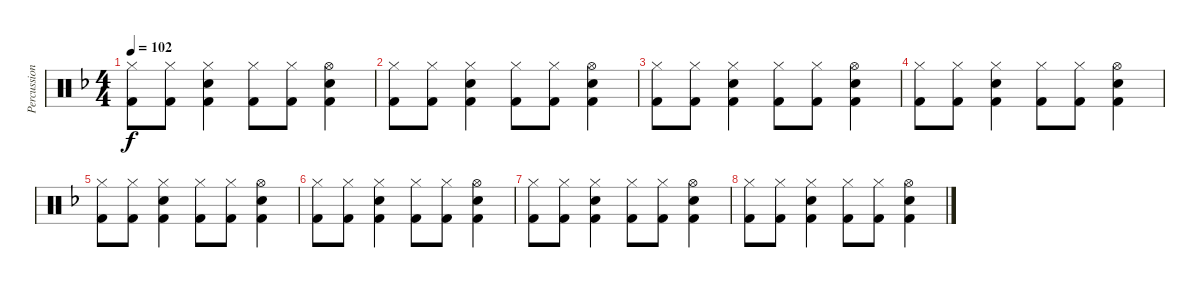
\track ("Percussion" "Percussion") {instrument percussion}
\staff {score}
\articulation defaults
\ts (4 4)
\tempo 102
\clef neutral
\ks dminor
("Hi-Hat (closed)" "Kick (hit) 2").8{dy f} ("Hi-Hat (closed)" "Kick (hit) 2").8 ("Hi-Hat (closed)" "Kick (hit) 2" "Snare (hit) 2").4 ("Hi-Hat (closed)" "Kick (hit) 2").8 ("Hi-Hat (closed)" "Kick (hit) 2").8 ("Hi-Hat (open)" "Kick (hit) 2" "Snare (hit) 2").4 |
("Hi-Hat (closed)" "Kick (hit) 2").8 ("Hi-Hat (closed)" "Kick (hit) 2").8 ("Hi-Hat (closed)" "Kick (hit) 2" "Snare (hit) 2").4 ("Hi-Hat (closed)" "Kick (hit) 2").8 ("Hi-Hat (closed)" "Kick (hit) 2").8 ("Hi-Hat (open)" "Kick (hit) 2" "Snare (hit) 2").4 |
("Hi-Hat (closed)" "Kick (hit) 2").8 ("Hi-Hat (closed)" "Kick (hit) 2").8 ("Hi-Hat (closed)" "Kick (hit) 2" "Snare (hit) 2").4 ("Hi-Hat (closed)" "Kick (hit) 2").8 ("Hi-Hat (closed)" "Kick (hit) 2").8 ("Hi-Hat (open)" "Kick (hit) 2" "Snare (hit) 2").4 |
("Hi-Hat (closed)" "Kick (hit) 2").8 ("Hi-Hat (closed)" "Kick (hit) 2").8 ("Hi-Hat (closed)" "Kick (hit) 2" "Snare (hit) 2").4 ("Hi-Hat (closed)" "Kick (hit) 2").8 ("Hi-Hat (closed)" "Kick (hit) 2").8 ("Hi-Hat (open)" "Kick (hit) 2" "Snare (hit) 2").4 |
("Hi-Hat (closed)" "Kick (hit) 2").8 ("Hi-Hat (closed)" "Kick (hit) 2").8 ("Hi-Hat (closed)" "Kick (hit) 2" "Snare (hit) 2").4 ("Hi-Hat (closed)" "Kick (hit) 2").8 ("Hi-Hat (closed)" "Kick (hit) 2").8 ("Hi-Hat (open)" "Kick (hit) 2" "Snare (hit) 2").4 |
("Hi-Hat (closed)" "Kick (hit) 2").8 ("Hi-Hat (closed)" "Kick (hit) 2").8 ("Hi-Hat (closed)" "Kick (hit) 2" "Snare (hit) 2").4 ("Hi-Hat (closed)" "Kick (hit) 2").8 ("Hi-Hat (closed)" "Kick (hit) 2").8 ("Hi-Hat (open)" "Kick (hit) 2" "Snare (hit) 2").4 |
("Hi-Hat (closed)" "Kick (hit) 2").8 ("Hi-Hat (closed)" "Kick (hit) 2").8 ("Hi-Hat (closed)" "Kick (hit) 2" "Snare (hit) 2").4 ("Hi-Hat (closed)" "Kick (hit) 2").8 ("Hi-Hat (closed)" "Kick (hit) 2").8 ("Hi-Hat (open)" "Kick (hit) 2" "Snare (hit) 2").4 |
("Hi-Hat (closed)" "Kick (hit) 2").8 ("Hi-Hat (closed)" "Kick (hit) 2").8 ("Hi-Hat (closed)" "Kick (hit) 2" "Snare (hit) 2").4 ("Hi-Hat (closed)" "Kick (hit) 2").8 ("Hi-Hat (closed)" "Kick (hit) 2").8 ("Hi-Hat (open)" "Kick (hit) 2" "Snare (hit) 2").4
